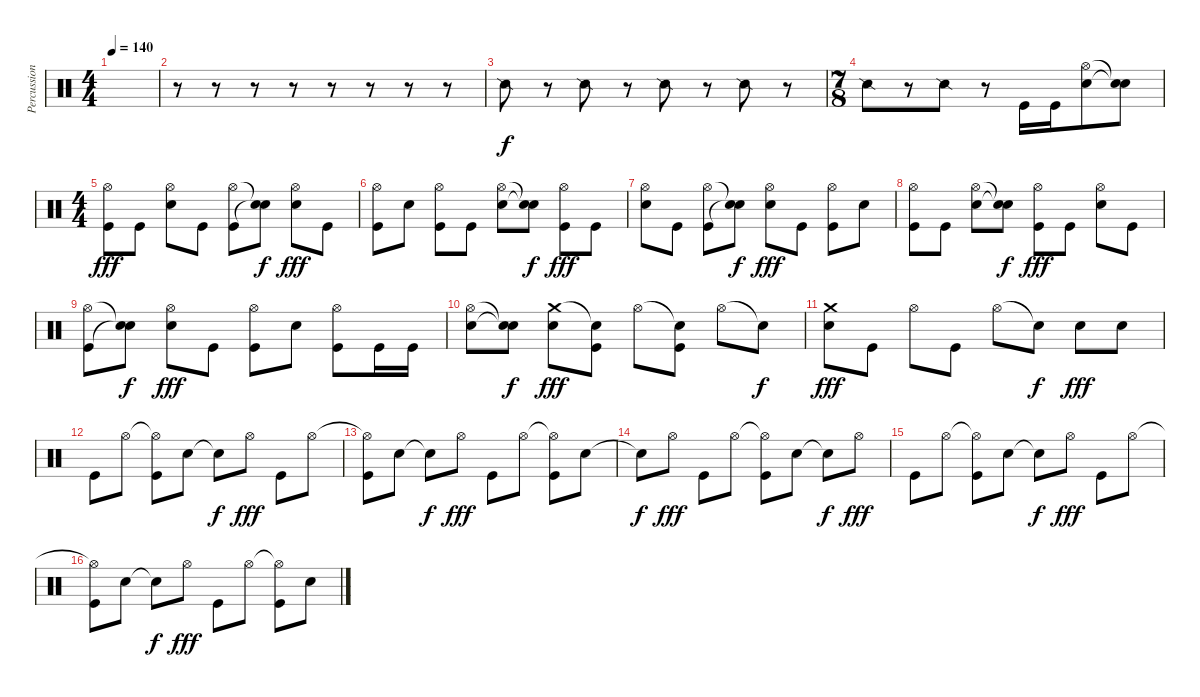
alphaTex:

\track ("Percussions" "Percussion") {instrument percussion}
\staff {score}
\articulation defaults
\ts (4 4)
\tempo 140
\tempo 147
\tempo 140
\clef neutral
\ks c
|
r.8 r.8 r.8 r.8 r.8 r.8 r.8 r.8 |
"Snare (side stick) 2".8 r.8 "Snare (side stick) 2".8 r.8 "Snare (side stick) 2".8 r.8 "Snare (side stick) 2".8 r.8 |
\ts (7 8)
"Snare (side stick) 2".8 r.8 "Snare (side stick) 2".8 r.8 "Kick (hit)".16 "Kick (hit)".16 ("Hi-Hat (open)" "Electric Snare (hit)").8 ("Snare (hit)"{t} "Snare (hit)"{t}).8{dy f} |
\ts (4 4)
("Hi-Hat (open)" "Kick (hit)").8{dy fff} "Kick (hit)".8 ("Hi-Hat (open)" "Electric Snare (hit)").8 "Kick (hit)".8 ("Hi-Hat (open)" "Kick (hit)").8 ("Snare (hit)"{t} "Snare (hit)"{t}).8{dy f} ("Hi-Hat (open)" "Electric Snare (hit)").8{dy fff} "Kick (hit)".8 |
("Hi-Hat (open)" "Kick (hit)").8 "Electric Snare (hit)".8 ("Hi-Hat (open)" "Kick (hit)").8 "Kick (hit)".8 ("Hi-Hat (open)" "Electric Snare (hit)").8 ("Snare (hit)"{t} "Snare (hit)"{t}).8{dy f} ("Hi-Hat (open)" "Kick (hit)").8{dy fff} "Kick (hit)".8 |
("Hi-Hat (open)" "Electric Snare (hit)").8 "Kick (hit)".8 ("Hi-Hat (open)" "Kick (hit)").8 ("Snare (hit)"{t} "Snare (hit)"{t}).8{dy f} ("Hi-Hat (open)" "Electric Snare (hit)").8{dy fff} "Kick (hit)".8 ("Hi-Hat (open)" "Kick (hit)").8 "Electric Snare (hit)".8 |
("Hi-Hat (open)" "Kick (hit)").8 "Kick (hit)".8 ("Hi-Hat (open)" "Electric Snare (hit)").8 ("Snare (hit)"{t} "Snare (hit)"{t}).8{dy f} ("Hi-Hat (open)" "Kick (hit)").8{dy fff} "Kick (hit)".8 ("Hi-Hat (open)" "Electric Snare (hit)").8 "Kick (hit)".8 |
("Hi-Hat (open)" "Kick (hit)").8 ("Snare (hit)"{t} "Snare (hit)"{t}).8{dy f} ("Hi-Hat (open)" "Electric Snare (hit)").8{dy fff} "Kick (hit)".8 ("Hi-Hat (open)" "Kick (hit)").8 "Electric Snare (hit)".8 ("Hi-Hat (open)" "Kick (hit)").8 "Kick (hit)".16 "Kick (hit)".16 |
("Hi-Hat (open)" "Electric Snare (hit)").8 ("Snare (hit)"{t} "Electric Snare (hit)"{t}).8{dy f} ("Crash medium (hit)" "Electric Snare (hit)").8{dy fff} ("Snare (hit)"{t} "Kick (hit)").8 "Hi-Hat (open)".8 ("Snare (hit)"{t} "Kick (hit)").8 "Hi-Hat (open)".8 "Snare (hit)"{t}.8{dy f} |
("Crash medium (hit)" "Electric Snare (hit)").8{dy fff} "Kick (hit)".8 "Hi-Hat (open)".8 "Kick (hit)".8 "Hi-Hat (open)".8 "Snare (hit)"{t}.8{dy f} "Electric Snare (hit)".8{dy fff} "Electric Snare (hit)".8 |
"Kick (hit)".8 "Hi-Hat (open)".8 ("Hi-Hat (open)"{t} "Kick (hit)").8 "Electric Snare (hit)".8 "Snare (hit)"{t}.8{dy f} "Hi-Hat (open)".8{dy fff} "Kick (hit)".8 "Hi-Hat (open)".8 |
("Hi-Hat (open)"{t} "Kick (hit)").8 "Electric Snare (hit)".8 "Electric Snare (hit)"{t}.8{dy f} "Hi-Hat (open)".8{dy fff} "Kick (hit)".8 "Hi-Hat (open)".8 ("Hi-Hat (open)"{t} "Kick (hit)").8 "Electric Snare (hit)".8 |
"Electric Snare (hit)"{t}.8{dy f} "Hi-Hat (open)".8{dy fff} "Kick (hit)".8 "Hi-Hat (open)".8 ("Hi-Hat (open)"{t} "Kick (hit)").8 "Electric Snare (hit)".8 "Snare (hit)"{t}.8{dy f} "Hi-Hat (open)".8{dy fff} |
"Kick (hit)".8 "Hi-Hat (open)".8 ("Hi-Hat (open)"{t} "Kick (hit)").8 "Electric Snare (hit)".8 "Snare (hit)"{t}.8{dy f} "Hi-Hat (open)".8{dy fff} "Kick (hit)".8 "Hi-Hat (open)".8 |
("Hi-Hat (open)"{t} "Kick (hit)").8 "Electric Snare (hit)".8 "Electric Snare (hit)"{t}.8{dy f} "Hi-Hat (open)".8{dy fff} "Kick (hit)".8 "Hi-Hat (open)".8 ("Hi-Hat (open)"{t} "Kick (hit)").8 "Electric Snare (hit)".8
